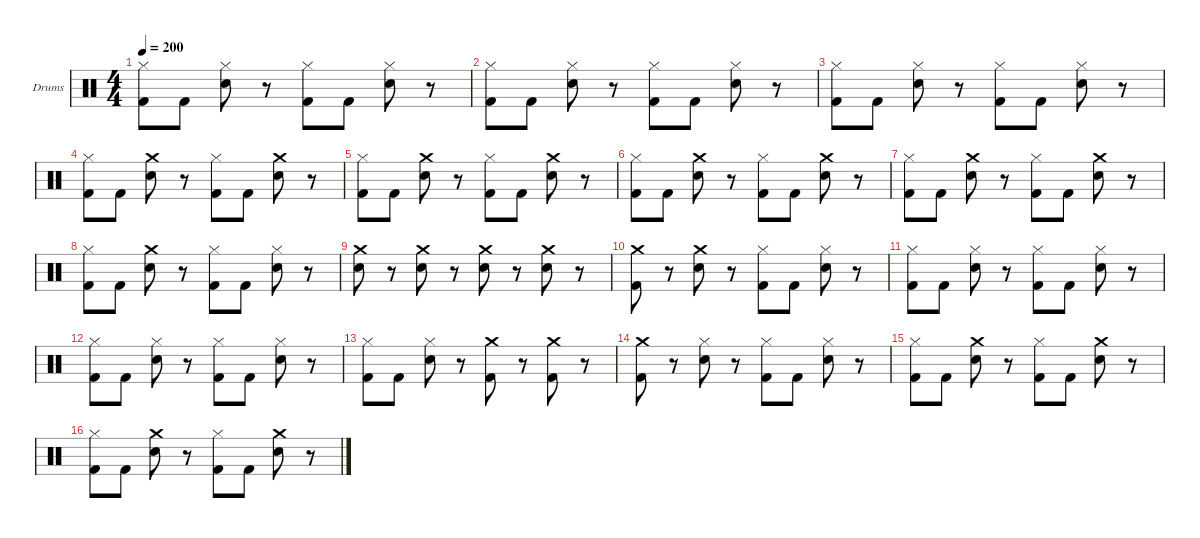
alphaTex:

\hideDynamics
\bracketExtendMode nobrackets
\firstSystemTrackNameOrientation horizontal
\otherSystemsTrackNameOrientation horizontal
\track ("Drumkit" "Drums") {instrument percussion}
\staff {score}
\articulation defaults
\ts (4 4)
\tempo 200
\clef neutral
\ks c
("Kick (hit) 2" "Hi-Hat (closed)").8{dy f} "Kick (hit) 2".8 ("Snare (hit) 2" "Hi-Hat (closed)").8 r.8 ("Kick (hit) 2" "Hi-Hat (closed)").8 "Kick (hit) 2".8 ("Snare (hit) 2" "Hi-Hat (closed)").8 r.8 |
("Kick (hit) 2" "Hi-Hat (closed)").8 "Kick (hit) 2".8 ("Snare (hit) 2" "Hi-Hat (closed)").8 r.8 ("Kick (hit) 2" "Hi-Hat (closed)").8 "Kick (hit) 2".8 ("Snare (hit) 2" "Hi-Hat (closed)").8 r.8 |
("Kick (hit) 2" "Hi-Hat (closed)").8 "Kick (hit) 2".8 ("Snare (hit) 2" "Hi-Hat (closed)").8 r.8 ("Kick (hit) 2" "Hi-Hat (closed)").8 "Kick (hit) 2".8 ("Snare (hit) 2" "Hi-Hat (closed)").8 r.8 |
("Kick (hit) 2" "Hi-Hat (closed)").8 "Kick (hit) 2".8 ("Crash medium (hit)" "Snare (hit) 2").8 r.8 ("Kick (hit) 2" "Hi-Hat (closed)").8 "Kick (hit) 2".8 ("Crash medium (hit)" "Snare (hit) 2").8 r.8 |
("Kick (hit) 2" "Hi-Hat (closed)").8 "Kick (hit) 2".8 ("Crash medium (hit)" "Snare (hit) 2").8 r.8 ("Kick (hit) 2" "Hi-Hat (closed)").8 "Kick (hit) 2".8 ("Crash medium (hit)" "Snare (hit) 2").8 r.8 |
("Kick (hit) 2" "Hi-Hat (closed)").8 "Kick (hit) 2".8 ("Crash medium (hit)" "Snare (hit) 2").8 r.8 ("Kick (hit) 2" "Hi-Hat (closed)").8 "Kick (hit) 2".8 ("Crash medium (hit)" "Snare (hit) 2").8 r.8 |
("Kick (hit) 2" "Hi-Hat (closed)").8 "Kick (hit) 2".8 ("Crash medium (hit)" "Snare (hit) 2").8 r.8 ("Kick (hit) 2" "Hi-Hat (closed)").8 "Kick (hit) 2".8 ("Crash medium (hit)" "Snare (hit) 2").8 r.8 |
("Kick (hit) 2" "Hi-Hat (closed)").8 "Kick (hit) 2".8 ("Crash medium (hit)" "Snare (hit) 2").8 r.8 ("Kick (hit) 2" "Hi-Hat (closed)").8 "Kick (hit) 2".8 ("Hi-Hat (closed)" "Snare (hit) 2").8 r.8 |
("Crash medium (hit)" "Snare (hit) 2").8 r.8 ("Crash medium (hit)" "Snare (hit) 2").8 r.8 ("Crash medium (hit)" "Snare (hit) 2").8 r.8 ("Crash medium (hit)" "Snare (hit) 2").8 r.8 |
("Kick (hit) 2" "Crash medium (hit)").8 r.8 ("Snare (hit) 2" "Crash medium (hit)").8 r.8 ("Hi-Hat (closed)" "Kick (hit) 2").8 "Kick (hit) 2".8 ("Snare (hit) 2" "Hi-Hat (closed)").8 r.8 |
("Kick (hit) 2" "Hi-Hat (closed)").8 "Kick (hit) 2".8 ("Snare (hit) 2" "Hi-Hat (closed)").8 r.8 ("Kick (hit) 2" "Hi-Hat (closed)").8 "Kick (hit) 2".8 ("Snare (hit) 2" "Hi-Hat (closed)").8 r.8 |
("Kick (hit) 2" "Hi-Hat (closed)").8 "Kick (hit) 2".8 ("Snare (hit) 2" "Hi-Hat (closed)").8 r.8 ("Kick (hit) 2" "Hi-Hat (closed)").8 "Kick (hit) 2".8 ("Snare (hit) 2" "Hi-Hat (closed)").8 r.8 |
("Kick (hit) 2" "Hi-Hat (closed)").8 "Kick (hit) 2".8 ("Snare (hit) 2" "Hi-Hat (closed)").8 r.8 ("Crash medium (hit)" "Kick (hit) 2").8 r.8 ("Crash medium (hit)" "Kick (hit) 2").8 r.8 |
("Kick (hit) 2" "Crash medium (hit)").8 r.8 ("Hi-Hat (closed)" "Snare (hit) 2").8 r.8 ("Hi-Hat (closed)" "Kick (hit) 2").8 "Kick (hit) 2".8 ("Hi-Hat (closed)" "Snare (hit) 2").8 r.8 |
("Kick (hit) 2" "Hi-Hat (closed)").8 "Kick (hit) 2".8 ("Crash medium (hit)" "Snare (hit) 2").8 r.8 ("Kick (hit) 2" "Hi-Hat (closed)").8 "Kick (hit) 2".8 ("Crash medium (hit)" "Snare (hit) 2").8 r.8 |
("Kick (hit) 2" "Hi-Hat (closed)").8 "Kick (hit) 2".8 ("Crash medium (hit)" "Snare (hit) 2").8 r.8 ("Kick (hit) 2" "Hi-Hat (closed)").8 "Kick (hit) 2".8 ("Crash medium (hit)" "Snare (hit) 2").8 r.8
